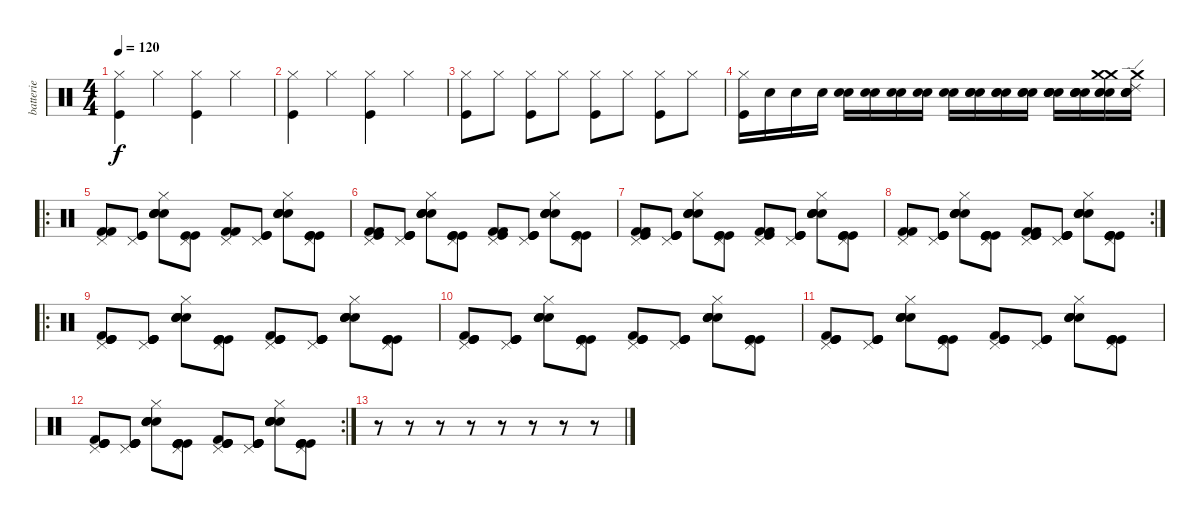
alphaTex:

\track ("batterie" "batterie") {instrument percussion}
\staff {score}
\articulation defaults
\ts (4 4)
\tempo 120
\clef neutral
\ks c
("Hi-Hat (closed)" "Kick (hit)").4{dy f} "Hi-Hat (closed)".4 ("Hi-Hat (closed)" "Kick (hit)").4 "Hi-Hat (closed)".4 |
("Hi-Hat (closed)" "Kick (hit)").4 "Hi-Hat (closed)".4 ("Hi-Hat (closed)" "Kick (hit)").4 "Hi-Hat (closed)".4 |
("Hi-Hat (closed)" "Kick (hit)").8 "Hi-Hat (closed)".8 ("Hi-Hat (closed)" "Kick (hit)").8 "Hi-Hat (closed)".8 ("Hi-Hat (closed)" "Kick (hit)").8 "Hi-Hat (closed)".8 ("Hi-Hat (closed)" "Kick (hit)").8 "Hi-Hat (closed)".8 |
("Hi-Hat (closed)" "Kick (hit)").16 "Electric Snare (hit)".16 "Electric Snare (hit)".16 "Electric Snare (hit)".16 ("Electric Snare (hit)" "Electric Snare (hit)").16 ("Electric Snare (hit)" "Electric Snare (hit)").16 ("Electric Snare (hit)" "Electric Snare (hit)").16 ("Electric Snare (hit)" "Electric Snare (hit)").16 ("Electric Snare (hit)" "Electric Snare (hit)").16 ("Electric Snare (hit)" "Electric Snare (hit)" "Electric Snare (hit)").16 ("Electric Snare (hit)" "Electric Snare (hit)" "Electric Snare (hit)").16 ("Electric Snare (hit)" "Electric Snare (hit)" "Electric Snare (hit)").16 ("Electric Snare (hit)" "Electric Snare (hit)" "Electric Snare (hit)" "Electric Snare (hit)").16 ("Electric Snare (hit)" "Electric Snare (hit)" "Electric Snare (hit)" "Electric Snare (hit)").16 ("Electric Snare (hit)" "Electric Snare (hit)" "Electric Snare (hit)" "Crash medium (hit)" "Crash medium (hit)").16 ("Electric Snare (hit)" "Electric Snare (hit)" "Electric Snare (hit)" "Crash medium (hit)" "Ride (edge) 2").16 |
\ro
("Kick (hit) 2" "Pedal Hi-Hat (hit)" "Kick (hit) 2").8 ("Kick (hit)" "Pedal Hi-Hat (hit)" "Kick (hit)").8 ("Electric Snare (hit)" "Hi-Hat (closed)" "Electric Snare (hit)" "Electric Snare (hit)" "Electric Snare (hit)").8 ("Kick (hit)" "Pedal Hi-Hat (hit)" "Kick (hit)").8 ("Kick (hit) 2" "Pedal Hi-Hat (hit)" "Kick (hit) 2").8 ("Kick (hit)" "Pedal Hi-Hat (hit)" "Kick (hit)").8 ("Electric Snare (hit)" "Hi-Hat (closed)" "Electric Snare (hit)" "Electric Snare (hit)" "Electric Snare (hit)").8 ("Kick (hit)" "Pedal Hi-Hat (hit)" "Kick (hit)" "Kick (hit)").8 |
("Kick (hit) 2" "Pedal Hi-Hat (hit)" "Kick (hit) 2" "Kick (hit)").8 ("Kick (hit)" "Pedal Hi-Hat (hit)" "Kick (hit)" "Kick (hit)").8 ("Electric Snare (hit)" "Hi-Hat (closed)" "Electric Snare (hit)" "Electric Snare (hit)" "Electric Snare (hit)").8 ("Kick (hit)" "Pedal Hi-Hat (hit)" "Kick (hit)" "Kick (hit)").8 ("Kick (hit) 2" "Pedal Hi-Hat (hit)" "Kick (hit) 2" "Kick (hit)").8 ("Kick (hit)" "Pedal Hi-Hat (hit)" "Kick (hit)" "Kick (hit)").8 ("Electric Snare (hit)" "Hi-Hat (closed)" "Electric Snare (hit)" "Electric Snare (hit)" "Electric Snare (hit)").8 ("Kick (hit)" "Pedal Hi-Hat (hit)" "Kick (hit)" "Kick (hit)").8 |
("Kick (hit) 2" "Pedal Hi-Hat (hit)" "Kick (hit) 2" "Kick (hit)").8 ("Kick (hit)" "Pedal Hi-Hat (hit)" "Kick (hit)" "Kick (hit)").8 ("Electric Snare (hit)" "Hi-Hat (closed)" "Electric Snare (hit)" "Electric Snare (hit)" "Electric Snare (hit)").8 ("Kick (hit)" "Pedal Hi-Hat (hit)" "Kick (hit)" "Kick (hit)").8 ("Kick (hit) 2" "Pedal Hi-Hat (hit)" "Kick (hit) 2" "Kick (hit)").8 ("Kick (hit)" "Pedal Hi-Hat (hit)" "Kick (hit)" "Kick (hit)").8 ("Electric Snare (hit)" "Hi-Hat (closed)" "Electric Snare (hit)" "Electric Snare (hit)" "Electric Snare (hit)").8 ("Kick (hit)" "Pedal Hi-Hat (hit)" "Kick (hit)" "Kick (hit)").8 |
\rc 2
("Kick (hit) 2" "Pedal Hi-Hat (hit)" "Kick (hit) 2").8 ("Kick (hit)" "Pedal Hi-Hat (hit)" "Kick (hit)" "Kick (hit)" "Kick (hit)").8 ("Electric Snare (hit)" "Hi-Hat (closed)" "Electric Snare (hit)" "Electric Snare (hit)" "Electric Snare (hit)").8 ("Kick (hit)" "Pedal Hi-Hat (hit)" "Kick (hit)" "Kick (hit)" "Kick (hit)").8 ("Kick (hit) 2" "Pedal Hi-Hat (hit)" "Kick (hit) 2" "Kick (hit)" "Kick (hit)").8 ("Kick (hit)" "Pedal Hi-Hat (hit)" "Kick (hit)" "Kick (hit)" "Kick (hit)").8 ("Electric Snare (hit)" "Hi-Hat (closed)" "Electric Snare (hit)" "Electric Snare (hit)" "Electric Snare (hit)").8 ("Kick (hit)" "Pedal Hi-Hat (hit)" "Kick (hit)" "Kick (hit)" "Kick (hit)").8 |
\ro
("Kick (hit) 2" "Pedal Hi-Hat (hit)" "Kick (hit)" "Kick (hit)" "Kick (hit)").8 ("Kick (hit)" "Pedal Hi-Hat (hit)" "Kick (hit)" "Kick (hit)" "Kick (hit)").8 ("Electric Snare (hit)" "Hi-Hat (closed)" "Electric Snare (hit)" "Electric Snare (hit)" "Electric Snare (hit)").8 ("Kick (hit)" "Pedal Hi-Hat (hit)" "Kick (hit)" "Kick (hit)" "Kick (hit)").8 ("Kick (hit) 2" "Pedal Hi-Hat (hit)" "Kick (hit)" "Kick (hit)" "Kick (hit)").8 ("Kick (hit)" "Pedal Hi-Hat (hit)" "Kick (hit)" "Kick (hit)" "Kick (hit)").8 ("Electric Snare (hit)" "Hi-Hat (closed)" "Electric Snare (hit)" "Electric Snare (hit)" "Electric Snare (hit)").8 ("Kick (hit)" "Pedal Hi-Hat (hit)" "Kick (hit)" "Kick (hit)" "Kick (hit)").8 |
("Kick (hit) 2" "Pedal Hi-Hat (hit)" "Kick (hit)" "Kick (hit)" "Kick (hit)").8 ("Kick (hit)" "Pedal Hi-Hat (hit)" "Kick (hit)" "Kick (hit)" "Kick (hit)").8 ("Electric Snare (hit)" "Hi-Hat (closed)" "Electric Snare (hit)" "Electric Snare (hit)" "Electric Snare (hit)").8 ("Kick (hit)" "Pedal Hi-Hat (hit)" "Kick (hit)" "Kick (hit)" "Kick (hit)").8 ("Kick (hit) 2" "Pedal Hi-Hat (hit)" "Kick (hit)" "Kick (hit)" "Kick (hit)").8 ("Kick (hit)" "Pedal Hi-Hat (hit)" "Kick (hit)" "Kick (hit)" "Kick (hit)").8 ("Electric Snare (hit)" "Hi-Hat (closed)" "Electric Snare (hit)" "Electric Snare (hit)" "Electric Snare (hit)").8 ("Kick (hit)" "Pedal Hi-Hat (hit)" "Kick (hit)" "Kick (hit)" "Kick (hit)").8 |
("Kick (hit) 2" "Pedal Hi-Hat (hit)" "Kick (hit)" "Kick (hit)" "Kick (hit)").8 ("Kick (hit)" "Pedal Hi-Hat (hit)" "Kick (hit)" "Kick (hit)" "Kick (hit)").8 ("Electric Snare (hit)" "Hi-Hat (closed)" "Electric Snare (hit)" "Electric Snare (hit)" "Electric Snare (hit)").8 ("Kick (hit)" "Pedal Hi-Hat (hit)" "Kick (hit)" "Kick (hit)" "Kick (hit)").8 ("Kick (hit) 2" "Pedal Hi-Hat (hit)" "Kick (hit)" "Kick (hit)" "Kick (hit)").8 ("Kick (hit)" "Pedal Hi-Hat (hit)" "Kick (hit)" "Kick (hit)" "Kick (hit)").8 ("Electric Snare (hit)" "Hi-Hat (closed)" "Electric Snare (hit)" "Electric Snare (hit)" "Electric Snare (hit)").8 ("Kick (hit)" "Pedal Hi-Hat (hit)" "Kick (hit)" "Kick (hit)" "Kick (hit)").8 |
\rc 2
("Kick (hit) 2" "Pedal Hi-Hat (hit)" "Kick (hit)" "Kick (hit)" "Kick (hit)").8 ("Kick (hit)" "Pedal Hi-Hat (hit)" "Kick (hit)" "Kick (hit)" "Kick (hit)").8 ("Electric Snare (hit)" "Hi-Hat (closed)" "Electric Snare (hit)" "Electric Snare (hit)" "Electric Snare (hit)").8 ("Kick (hit)" "Pedal Hi-Hat (hit)" "Kick (hit)" "Kick (hit)" "Kick (hit)").8 ("Kick (hit) 2" "Pedal Hi-Hat (hit)" "Kick (hit)" "Kick (hit)" "Kick (hit)").8 ("Kick (hit)" "Pedal Hi-Hat (hit)" "Kick (hit)" "Kick (hit)" "Kick (hit)").8 ("Electric Snare (hit)" "Hi-Hat (closed)" "Electric Snare (hit)" "Electric Snare (hit)" "Electric Snare (hit)").8 ("Kick (hit)" "Pedal Hi-Hat (hit)" "Kick (hit)" "Kick (hit)" "Kick (hit)").8 |
r.8 r.8 r.8 r.8 r.8 r.8 r.8 r.8
